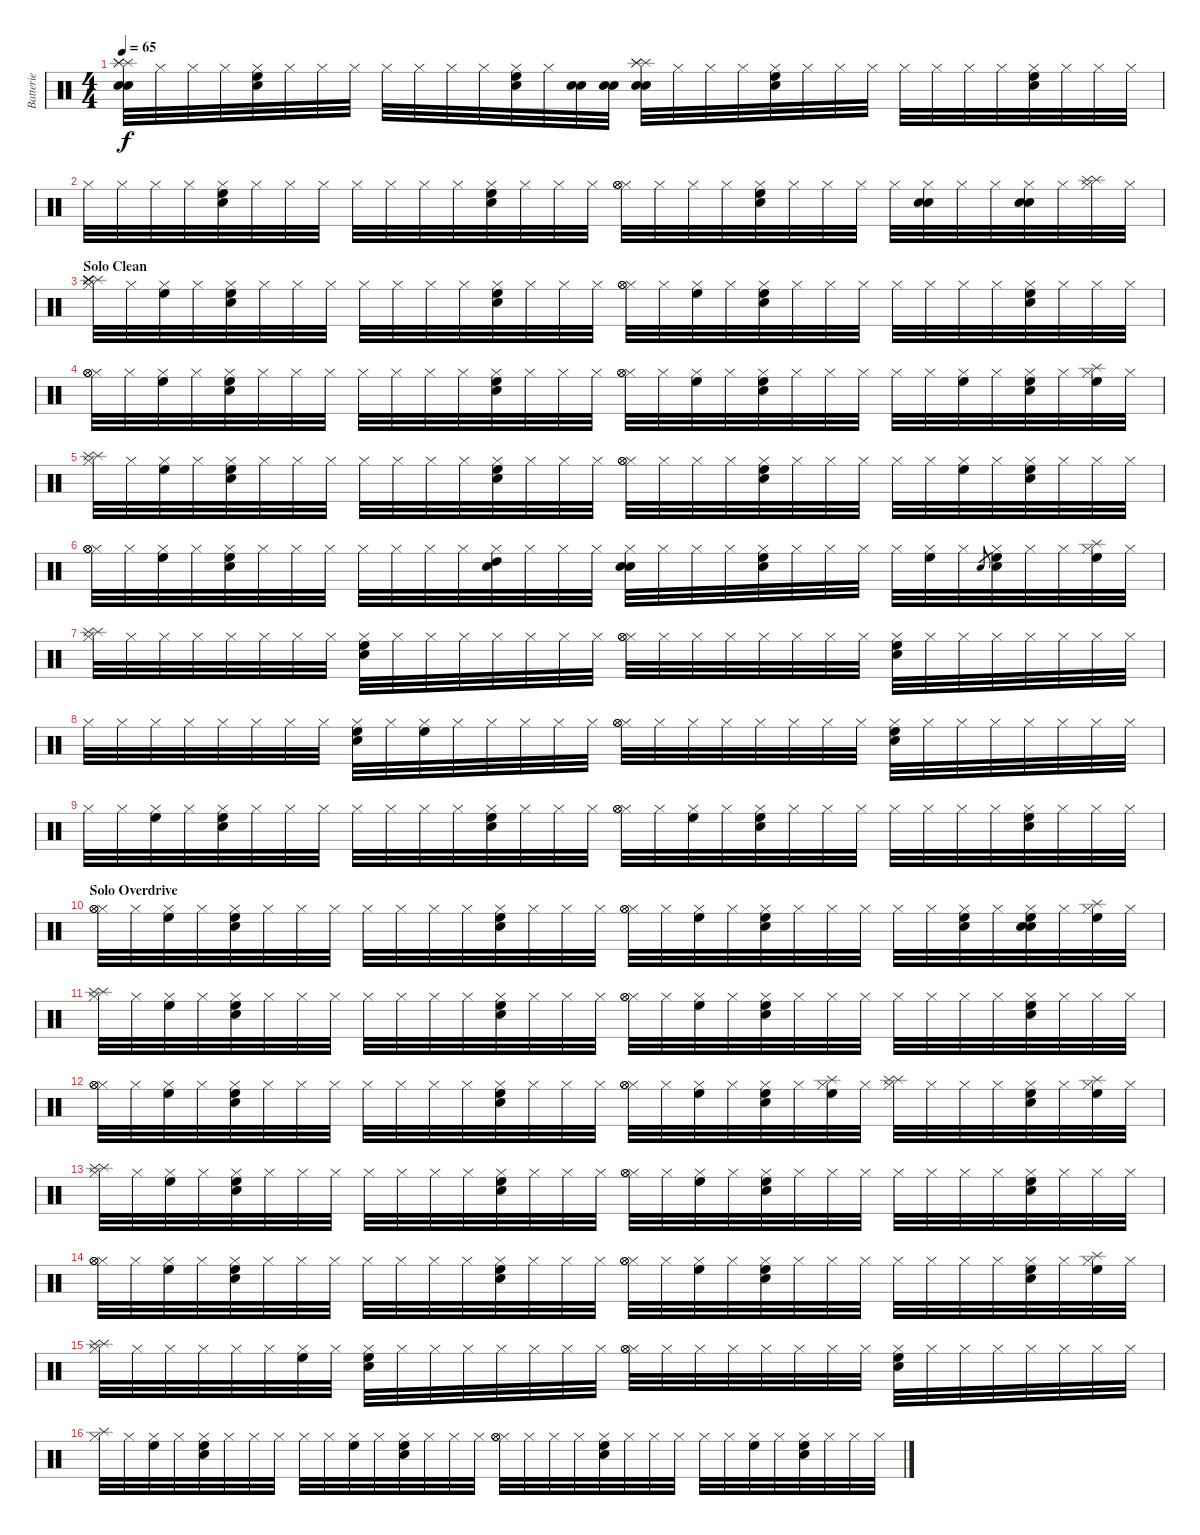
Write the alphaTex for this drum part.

\track ("Batterie" "Batterie") {instrument percussion}
\staff {score}
\articulation defaults
\ts (4 4)
\tempo 65
\clef neutral
\ks c
("Snare (hit) 2" "Snare (hit) 2" "Splash (hit)" "Splash (hit)" "Splash (hit)").32{dy f} "Hi-Hat (closed)".32 "Hi-Hat (closed)".32 "Hi-Hat (closed)".32 ("Hi-Hat (closed)" "Snare (hit) 2" "High Floor Tom (hit)").32 "Hi-Hat (closed)".32 "Hi-Hat (closed)".32 "Hi-Hat (closed)".32 "Hi-Hat (closed)".32 "Hi-Hat (closed)".32 "Hi-Hat (closed)".32 "Hi-Hat (closed)".32 ("Hi-Hat (closed)" "Snare (hit) 2" "High Floor Tom (hit)").32 "Hi-Hat (closed)".32 ("Snare (hit) 2" "Snare (hit) 2").32 ("Snare (hit) 2" "Snare (hit) 2").32 ("Snare (hit) 2" "Snare (hit) 2" "Splash (hit)" "Splash (hit)" "Splash (hit)").32 "Hi-Hat (closed)".32 "Hi-Hat (closed)".32 "Hi-Hat (closed)".32 ("Hi-Hat (closed)" "Snare (hit) 2" "High Floor Tom (hit)").32 "Hi-Hat (closed)".32 "Hi-Hat (closed)".32 "Hi-Hat (closed)".32 "Hi-Hat (closed)".32 "Hi-Hat (closed)".32 "Hi-Hat (closed)".32 "Hi-Hat (closed)".32 ("Hi-Hat (closed)" "Snare (hit) 2" "High Floor Tom (hit)").32 "Hi-Hat (closed)".32 "Hi-Hat (closed)".32 "Hi-Hat (closed)".32 |
"Hi-Hat (closed)".32 "Hi-Hat (closed)".32 "Hi-Hat (closed)".32 "Hi-Hat (closed)".32 ("Hi-Hat (closed)" "Snare (hit) 2" "High Floor Tom (hit)").32 "Hi-Hat (closed)".32 "Hi-Hat (closed)".32 "Hi-Hat (closed)".32 "Hi-Hat (closed)".32 "Hi-Hat (closed)".32 "Hi-Hat (closed)".32 "Hi-Hat (closed)".32 ("Hi-Hat (closed)" "Snare (hit) 2" "High Floor Tom (hit)").32 "Hi-Hat (closed)".32 "Hi-Hat (closed)".32 "Hi-Hat (closed)".32 ("Hi-Hat (closed)" "Hi-Hat (open)" "Hi-Hat (open)").32 "Hi-Hat (closed)".32 "Hi-Hat (closed)".32 "Hi-Hat (closed)".32 ("Hi-Hat (closed)" "Snare (hit) 2" "High Floor Tom (hit)").32 "Hi-Hat (closed)".32 "Hi-Hat (closed)".32 "Hi-Hat (closed)".32 "Hi-Hat (closed)".32 ("Hi-Hat (closed)" "Snare (hit) 2" "Snare (hit) 2").32 "Hi-Hat (closed)".32 "Hi-Hat (closed)".32 ("Hi-Hat (closed)" "Snare (hit) 2" "Snare (hit) 2").32 "Hi-Hat (closed)".32 ("Hi-Hat (closed)" "Splash (hit)" "Splash (hit)").32 "Hi-Hat (closed)".32 |
\section ("" "Solo Clean")
("Hi-Hat (closed)" "Splash (hit)" "Splash (hit)" "Splash (hit)" "Splash (hit)" "Splash (hit)").32 "Hi-Hat (closed)".32 ("Hi-Hat (closed)" "High Floor Tom (hit)").32 "Hi-Hat (closed)".32 ("Hi-Hat (closed)" "Snare (hit) 2" "High Floor Tom (hit)").32 "Hi-Hat (closed)".32 "Hi-Hat (closed)".32 "Hi-Hat (closed)".32 "Hi-Hat (closed)".32 "Hi-Hat (closed)".32 "Hi-Hat (closed)".32 "Hi-Hat (closed)".32 ("Hi-Hat (closed)" "Snare (hit) 2" "High Floor Tom (hit)").32 "Hi-Hat (closed)".32 "Hi-Hat (closed)".32 "Hi-Hat (closed)".32 ("Hi-Hat (closed)" "Hi-Hat (open)" "Hi-Hat (open)").32 "Hi-Hat (closed)".32 ("Hi-Hat (closed)" "High Floor Tom (hit)").32 "Hi-Hat (closed)".32 ("Hi-Hat (closed)" "Snare (hit) 2" "High Floor Tom (hit)").32 "Hi-Hat (closed)".32 "Hi-Hat (closed)".32 "Hi-Hat (closed)".32 "Hi-Hat (closed)".32 "Hi-Hat (closed)".32 "Hi-Hat (closed)".32 "Hi-Hat (closed)".32 ("Hi-Hat (closed)" "Snare (hit) 2" "High Floor Tom (hit)").32 "Hi-Hat (closed)".32 "Hi-Hat (closed)".32 "Hi-Hat (closed)".32 |
("Hi-Hat (closed)" "Hi-Hat (open)" "Hi-Hat (open)").32 "Hi-Hat (closed)".32 ("Hi-Hat (closed)" "High Floor Tom (hit)").32 "Hi-Hat (closed)".32 ("Hi-Hat (closed)" "Snare (hit) 2" "High Floor Tom (hit)").32 "Hi-Hat (closed)".32 "Hi-Hat (closed)".32 "Hi-Hat (closed)".32 "Hi-Hat (closed)".32 "Hi-Hat (closed)".32 "Hi-Hat (closed)".32 "Hi-Hat (closed)".32 ("Hi-Hat (closed)" "Snare (hit) 2" "High Floor Tom (hit)").32 "Hi-Hat (closed)".32 "Hi-Hat (closed)".32 "Hi-Hat (closed)".32 ("Hi-Hat (closed)" "Hi-Hat (open)" "Hi-Hat (open)").32 "Hi-Hat (closed)".32 ("Hi-Hat (closed)" "High Floor Tom (hit)").32 "Hi-Hat (closed)".32 ("Hi-Hat (closed)" "Snare (hit) 2" "High Floor Tom (hit)").32 "Hi-Hat (closed)".32 "Hi-Hat (closed)".32 "Hi-Hat (closed)".32 "Hi-Hat (closed)".32 "Hi-Hat (closed)".32 ("Hi-Hat (closed)" "High Floor Tom (hit)").32 "Hi-Hat (closed)".32 ("Hi-Hat (closed)" "Snare (hit) 2" "High Floor Tom (hit)").32 "Hi-Hat (closed)".32 ("Hi-Hat (closed)" "Splash (hit)" "High Floor Tom (hit)").32 "Hi-Hat (closed)".32 |
("Hi-Hat (closed)" "Splash (hit)" "Splash (hit)").32 "Hi-Hat (closed)".32 ("Hi-Hat (closed)" "High Floor Tom (hit)").32 "Hi-Hat (closed)".32 ("Hi-Hat (closed)" "Snare (hit) 2" "High Floor Tom (hit)").32 "Hi-Hat (closed)".32 "Hi-Hat (closed)".32 "Hi-Hat (closed)".32 "Hi-Hat (closed)".32 "Hi-Hat (closed)".32 "Hi-Hat (closed)".32 "Hi-Hat (closed)".32 ("Hi-Hat (closed)" "Snare (hit) 2" "High Floor Tom (hit)").32 "Hi-Hat (closed)".32 "Hi-Hat (closed)".32 "Hi-Hat (closed)".32 ("Hi-Hat (closed)" "Hi-Hat (open)" "Hi-Hat (open)").32 "Hi-Hat (closed)".32 "Hi-Hat (closed)".32 "Hi-Hat (closed)".32 ("Hi-Hat (closed)" "Snare (hit) 2" "High Floor Tom (hit)").32 "Hi-Hat (closed)".32 "Hi-Hat (closed)".32 "Hi-Hat (closed)".32 "Hi-Hat (closed)".32 "Hi-Hat (closed)".32 ("Hi-Hat (closed)" "High Floor Tom (hit)").32 "Hi-Hat (closed)".32 ("Hi-Hat (closed)" "Snare (hit) 2" "High Floor Tom (hit)").32 "Hi-Hat (closed)".32 "Hi-Hat (closed)".32 "Hi-Hat (closed)".32 |
("Hi-Hat (closed)" "Hi-Hat (open)" "Hi-Hat (open)").32 "Hi-Hat (closed)".32 ("Hi-Hat (closed)" "High Floor Tom (hit)").32 "Hi-Hat (closed)".32 ("Hi-Hat (closed)" "Snare (hit) 2" "High Floor Tom (hit)").32 "Hi-Hat (closed)".32 "Hi-Hat (closed)".32 "Hi-Hat (closed)".32 "Hi-Hat (closed)".32 "Hi-Hat (closed)".32 "Hi-Hat (closed)".32 "Hi-Hat (closed)".32 ("Hi-Hat (closed)" "Snare (hit) 2" "High Tom (hit)").32 "Hi-Hat (closed)".32 "Hi-Hat (closed)".32 "Hi-Hat (closed)".32 ("Hi-Hat (closed)" "Snare (hit) 2" "Snare (hit) 2").32 "Hi-Hat (closed)".32 "Hi-Hat (closed)".32 "Hi-Hat (closed)".32 ("Hi-Hat (closed)" "Snare (hit) 2" "High Floor Tom (hit)").32 "Hi-Hat (closed)".32 "Hi-Hat (closed)".32 "Hi-Hat (closed)".32 "Hi-Hat (closed)".32 ("Hi-Hat (closed)" "High Floor Tom (hit)").32 "Hi-Hat (closed)".32 "Snare (hit) 2".8{gr} ("Hi-Hat (closed)" "Snare (hit) 2" "High Floor Tom (hit)").32 "Hi-Hat (closed)".32 "Hi-Hat (closed)".32 ("Hi-Hat (closed)" "Splash (hit)" "High Floor Tom (hit)").32 "Hi-Hat (closed)".32 |
("Hi-Hat (closed)" "Splash (hit)" "Splash (hit)").32 "Hi-Hat (closed)".32 "Hi-Hat (closed)".32 "Hi-Hat (closed)".32 "Hi-Hat (closed)".32 "Hi-Hat (closed)".32 "Hi-Hat (closed)".32 "Hi-Hat (closed)".32 ("Hi-Hat (closed)" "Snare (hit) 2" "High Floor Tom (hit)").32 "Hi-Hat (closed)".32 "Hi-Hat (closed)".32 "Hi-Hat (closed)".32 "Hi-Hat (closed)".32 "Hi-Hat (closed)".32 "Hi-Hat (closed)".32 "Hi-Hat (closed)".32 ("Hi-Hat (closed)" "Hi-Hat (open)" "Hi-Hat (open)").32 "Hi-Hat (closed)".32 "Hi-Hat (closed)".32 "Hi-Hat (closed)".32 "Hi-Hat (closed)".32 "Hi-Hat (closed)".32 "Hi-Hat (closed)".32 "Hi-Hat (closed)".32 ("Hi-Hat (closed)" "Snare (hit) 2" "High Floor Tom (hit)").32 "Hi-Hat (closed)".32 "Hi-Hat (closed)".32 "Hi-Hat (closed)".32 "Hi-Hat (closed)".32 "Hi-Hat (closed)".32 "Hi-Hat (closed)".32 "Hi-Hat (closed)".32 |
"Hi-Hat (closed)".32 "Hi-Hat (closed)".32 "Hi-Hat (closed)".32 "Hi-Hat (closed)".32 "Hi-Hat (closed)".32 "Hi-Hat (closed)".32 "Hi-Hat (closed)".32 "Hi-Hat (closed)".32 ("Hi-Hat (closed)" "Snare (hit) 2" "High Floor Tom (hit)").32 "Hi-Hat (closed)".32 ("Hi-Hat (closed)" "High Floor Tom (hit)").32 "Hi-Hat (closed)".32 "Hi-Hat (closed)".32 "Hi-Hat (closed)".32 "Hi-Hat (closed)".32 "Hi-Hat (closed)".32 ("Hi-Hat (closed)" "Hi-Hat (open)" "Hi-Hat (open)").32 "Hi-Hat (closed)".32 "Hi-Hat (closed)".32 "Hi-Hat (closed)".32 "Hi-Hat (closed)".32 "Hi-Hat (closed)".32 "Hi-Hat (closed)".32 "Hi-Hat (closed)".32 ("Hi-Hat (closed)" "Snare (hit) 2" "High Floor Tom (hit)").32 "Hi-Hat (closed)".32 "Hi-Hat (closed)".32 "Hi-Hat (closed)".32 "Hi-Hat (closed)".32 "Hi-Hat (closed)".32 "Hi-Hat (closed)".32 "Hi-Hat (closed)".32 |
"Hi-Hat (closed)".32 "Hi-Hat (closed)".32 ("Hi-Hat (closed)" "High Floor Tom (hit)").32 "Hi-Hat (closed)".32 ("Hi-Hat (closed)" "Snare (hit) 2" "High Floor Tom (hit)").32 "Hi-Hat (closed)".32 "Hi-Hat (closed)".32 "Hi-Hat (closed)".32 "Hi-Hat (closed)".32 "Hi-Hat (closed)".32 "Hi-Hat (closed)".32 "Hi-Hat (closed)".32 ("Hi-Hat (closed)" "Snare (hit) 2" "High Floor Tom (hit)").32 "Hi-Hat (closed)".32 "Hi-Hat (closed)".32 "Hi-Hat (closed)".32 ("Hi-Hat (closed)" "Hi-Hat (open)" "Hi-Hat (open)").32 "Hi-Hat (closed)".32 ("Hi-Hat (closed)" "High Floor Tom (hit)").32 "Hi-Hat (closed)".32 ("Hi-Hat (closed)" "Snare (hit) 2" "High Floor Tom (hit)").32 "Hi-Hat (closed)".32 "Hi-Hat (closed)".32 "Hi-Hat (closed)".32 "Hi-Hat (closed)".32 "Hi-Hat (closed)".32 "Hi-Hat (closed)".32 "Hi-Hat (closed)".32 ("Hi-Hat (closed)" "Snare (hit) 2" "High Floor Tom (hit)").32 "Hi-Hat (closed)".32 "Hi-Hat (closed)".32 "Hi-Hat (closed)".32 |
\section ("" "Solo Overdrive")
("Hi-Hat (closed)" "Hi-Hat (open)" "Hi-Hat (open)").32 "Hi-Hat (closed)".32 ("Hi-Hat (closed)" "High Floor Tom (hit)").32 "Hi-Hat (closed)".32 ("Hi-Hat (closed)" "Snare (hit) 2" "High Floor Tom (hit)").32 "Hi-Hat (closed)".32 "Hi-Hat (closed)".32 "Hi-Hat (closed)".32 "Hi-Hat (closed)".32 "Hi-Hat (closed)".32 "Hi-Hat (closed)".32 "Hi-Hat (closed)".32 ("Hi-Hat (closed)" "Snare (hit) 2" "High Floor Tom (hit)").32 "Hi-Hat (closed)".32 "Hi-Hat (closed)".32 "Hi-Hat (closed)".32 ("Hi-Hat (closed)" "Hi-Hat (open)" "Hi-Hat (open)").32 "Hi-Hat (closed)".32 ("Hi-Hat (closed)" "High Floor Tom (hit)").32 "Hi-Hat (closed)".32 ("Hi-Hat (closed)" "Snare (hit) 2" "High Floor Tom (hit)").32 "Hi-Hat (closed)".32 "Hi-Hat (closed)".32 "Hi-Hat (closed)".32 "Hi-Hat (closed)".32 "Hi-Hat (closed)".32 ("Hi-Hat (closed)" "Snare (hit) 2" "High Floor Tom (hit)").32 "Hi-Hat (closed)".32 ("Hi-Hat (closed)" "Snare (hit) 2" "Snare (hit) 2" "High Floor Tom (hit)").32 "Hi-Hat (closed)".32 ("Hi-Hat (closed)" "Splash (hit)" "High Floor Tom (hit)").32 "Hi-Hat (closed)".32 |
("Hi-Hat (closed)" "Splash (hit)" "Splash (hit)").32 "Hi-Hat (closed)".32 ("Hi-Hat (closed)" "High Floor Tom (hit)").32 "Hi-Hat (closed)".32 ("Hi-Hat (closed)" "Snare (hit) 2" "High Floor Tom (hit)").32 "Hi-Hat (closed)".32 "Hi-Hat (closed)".32 "Hi-Hat (closed)".32 "Hi-Hat (closed)".32 "Hi-Hat (closed)".32 "Hi-Hat (closed)".32 "Hi-Hat (closed)".32 ("Hi-Hat (closed)" "Snare (hit) 2" "High Floor Tom (hit)").32 "Hi-Hat (closed)".32 "Hi-Hat (closed)".32 "Hi-Hat (closed)".32 ("Hi-Hat (closed)" "Hi-Hat (open)" "Hi-Hat (open)").32 "Hi-Hat (closed)".32 ("Hi-Hat (closed)" "High Floor Tom (hit)").32 "Hi-Hat (closed)".32 ("Hi-Hat (closed)" "Snare (hit) 2" "High Floor Tom (hit)").32 "Hi-Hat (closed)".32 "Hi-Hat (closed)".32 "Hi-Hat (closed)".32 "Hi-Hat (closed)".32 "Hi-Hat (closed)".32 "Hi-Hat (closed)".32 "Hi-Hat (closed)".32 ("Hi-Hat (closed)" "Snare (hit) 2" "High Floor Tom (hit)").32 "Hi-Hat (closed)".32 "Hi-Hat (closed)".32 "Hi-Hat (closed)".32 |
("Hi-Hat (closed)" "Hi-Hat (open)" "Hi-Hat (open)").32 "Hi-Hat (closed)".32 ("Hi-Hat (closed)" "High Floor Tom (hit)").32 "Hi-Hat (closed)".32 ("Hi-Hat (closed)" "Snare (hit) 2" "High Floor Tom (hit)").32 "Hi-Hat (closed)".32 "Hi-Hat (closed)".32 "Hi-Hat (closed)".32 "Hi-Hat (closed)".32 "Hi-Hat (closed)".32 "Hi-Hat (closed)".32 "Hi-Hat (closed)".32 ("Hi-Hat (closed)" "Snare (hit) 2" "High Floor Tom (hit)").32 "Hi-Hat (closed)".32 "Hi-Hat (closed)".32 "Hi-Hat (closed)".32 ("Hi-Hat (closed)" "Hi-Hat (open)" "Hi-Hat (open)").32 "Hi-Hat (closed)".32 ("Hi-Hat (closed)" "High Floor Tom (hit)").32 "Hi-Hat (closed)".32 ("Hi-Hat (closed)" "Snare (hit) 2" "High Floor Tom (hit)").32 "Hi-Hat (closed)".32 ("Hi-Hat (closed)" "Splash (hit)" "High Floor Tom (hit)").32 "Hi-Hat (closed)".32 ("Hi-Hat (closed)" "Splash (hit)" "Splash (hit)").32 "Hi-Hat (closed)".32 "Hi-Hat (closed)".32 "Hi-Hat (closed)".32 ("Hi-Hat (closed)" "Snare (hit) 2" "High Floor Tom (hit)").32 "Hi-Hat (closed)".32 ("Hi-Hat (closed)" "Splash (hit)" "High Floor Tom (hit)").32 "Hi-Hat (closed)".32 |
("Hi-Hat (closed)" "Splash (hit)" "Splash (hit)").32 "Hi-Hat (closed)".32 ("Hi-Hat (closed)" "High Floor Tom (hit)").32 "Hi-Hat (closed)".32 ("Hi-Hat (closed)" "Snare (hit) 2" "High Floor Tom (hit)").32 "Hi-Hat (closed)".32 "Hi-Hat (closed)".32 "Hi-Hat (closed)".32 "Hi-Hat (closed)".32 "Hi-Hat (closed)".32 "Hi-Hat (closed)".32 "Hi-Hat (closed)".32 ("Hi-Hat (closed)" "Snare (hit) 2" "High Floor Tom (hit)").32 "Hi-Hat (closed)".32 "Hi-Hat (closed)".32 "Hi-Hat (closed)".32 ("Hi-Hat (closed)" "Hi-Hat (open)" "Hi-Hat (open)").32 "Hi-Hat (closed)".32 ("Hi-Hat (closed)" "High Floor Tom (hit)").32 "Hi-Hat (closed)".32 ("Hi-Hat (closed)" "Snare (hit) 2" "High Floor Tom (hit)").32 "Hi-Hat (closed)".32 "Hi-Hat (closed)".32 "Hi-Hat (closed)".32 "Hi-Hat (closed)".32 "Hi-Hat (closed)".32 "Hi-Hat (closed)".32 "Hi-Hat (closed)".32 ("Hi-Hat (closed)" "Snare (hit) 2" "High Floor Tom (hit)").32 "Hi-Hat (closed)".32 "Hi-Hat (closed)".32 "Hi-Hat (closed)".32 |
("Hi-Hat (closed)" "Hi-Hat (open)" "Hi-Hat (open)").32 "Hi-Hat (closed)".32 ("Hi-Hat (closed)" "High Floor Tom (hit)").32 "Hi-Hat (closed)".32 ("Hi-Hat (closed)" "Snare (hit) 2" "High Floor Tom (hit)").32 "Hi-Hat (closed)".32 "Hi-Hat (closed)".32 "Hi-Hat (closed)".32 "Hi-Hat (closed)".32 "Hi-Hat (closed)".32 "Hi-Hat (closed)".32 "Hi-Hat (closed)".32 ("Hi-Hat (closed)" "Snare (hit) 2" "High Floor Tom (hit)").32 "Hi-Hat (closed)".32 "Hi-Hat (closed)".32 "Hi-Hat (closed)".32 ("Hi-Hat (closed)" "Hi-Hat (open)" "Hi-Hat (open)").32 "Hi-Hat (closed)".32 ("Hi-Hat (closed)" "High Floor Tom (hit)").32 "Hi-Hat (closed)".32 ("Hi-Hat (closed)" "Snare (hit) 2" "High Floor Tom (hit)").32 "Hi-Hat (closed)".32 "Hi-Hat (closed)".32 "Hi-Hat (closed)".32 "Hi-Hat (closed)".32 "Hi-Hat (closed)".32 "Hi-Hat (closed)".32 "Hi-Hat (closed)".32 ("Hi-Hat (closed)" "Snare (hit) 2" "High Floor Tom (hit)").32 "Hi-Hat (closed)".32 ("Hi-Hat (closed)" "Splash (hit)" "High Floor Tom (hit)").32 "Hi-Hat (closed)".32 |
("Hi-Hat (closed)" "Splash (hit)" "Splash (hit)").32 "Hi-Hat (closed)".32 "Hi-Hat (closed)".32 "Hi-Hat (closed)".32 "Hi-Hat (closed)".32 "Hi-Hat (closed)".32 ("Hi-Hat (closed)" "High Floor Tom (hit)").32 "Hi-Hat (closed)".32 ("Hi-Hat (closed)" "Snare (hit) 2" "High Floor Tom (hit)").32 "Hi-Hat (closed)".32 "Hi-Hat (closed)".32 "Hi-Hat (closed)".32 "Hi-Hat (closed)".32 "Hi-Hat (closed)".32 "Hi-Hat (closed)".32 "Hi-Hat (closed)".32 ("Hi-Hat (closed)" "Hi-Hat (open)" "Hi-Hat (open)").32 "Hi-Hat (closed)".32 "Hi-Hat (closed)".32 "Hi-Hat (closed)".32 "Hi-Hat (closed)".32 "Hi-Hat (closed)".32 "Hi-Hat (closed)".32 "Hi-Hat (closed)".32 ("Hi-Hat (closed)" "Snare (hit) 2" "High Floor Tom (hit)").32 "Hi-Hat (closed)".32 "Hi-Hat (closed)".32 "Hi-Hat (closed)".32 "Hi-Hat (closed)".32 "Hi-Hat (closed)".32 "Hi-Hat (closed)".32 "Hi-Hat (closed)".32 |
("Hi-Hat (closed)" "Splash (hit)").32 "Hi-Hat (closed)".32 ("Hi-Hat (closed)" "High Floor Tom (hit)").32 "Hi-Hat (closed)".32 ("Hi-Hat (closed)" "Snare (hit) 2" "High Floor Tom (hit)").32 "Hi-Hat (closed)".32 "Hi-Hat (closed)".32 "Hi-Hat (closed)".32 "Hi-Hat (closed)".32 "Hi-Hat (closed)".32 ("Hi-Hat (closed)" "High Floor Tom (hit)").32 "Hi-Hat (closed)".32 ("Hi-Hat (closed)" "Snare (hit) 2" "High Floor Tom (hit)").32 "Hi-Hat (closed)".32 "Hi-Hat (closed)".32 "Hi-Hat (closed)".32 ("Hi-Hat (closed)" "Hi-Hat (open)" "Hi-Hat (open)").32 "Hi-Hat (closed)".32 "Hi-Hat (closed)".32 "Hi-Hat (closed)".32 ("Hi-Hat (closed)" "Snare (hit) 2" "High Floor Tom (hit)").32 "Hi-Hat (closed)".32 "Hi-Hat (closed)".32 "Hi-Hat (closed)".32 "Hi-Hat (closed)".32 "Hi-Hat (closed)".32 ("Hi-Hat (closed)" "High Floor Tom (hit)").32 "Hi-Hat (closed)".32 ("Hi-Hat (closed)" "Snare (hit) 2" "High Floor Tom (hit)").32 "Hi-Hat (closed)".32 "Hi-Hat (closed)".32 "Hi-Hat (closed)".32
